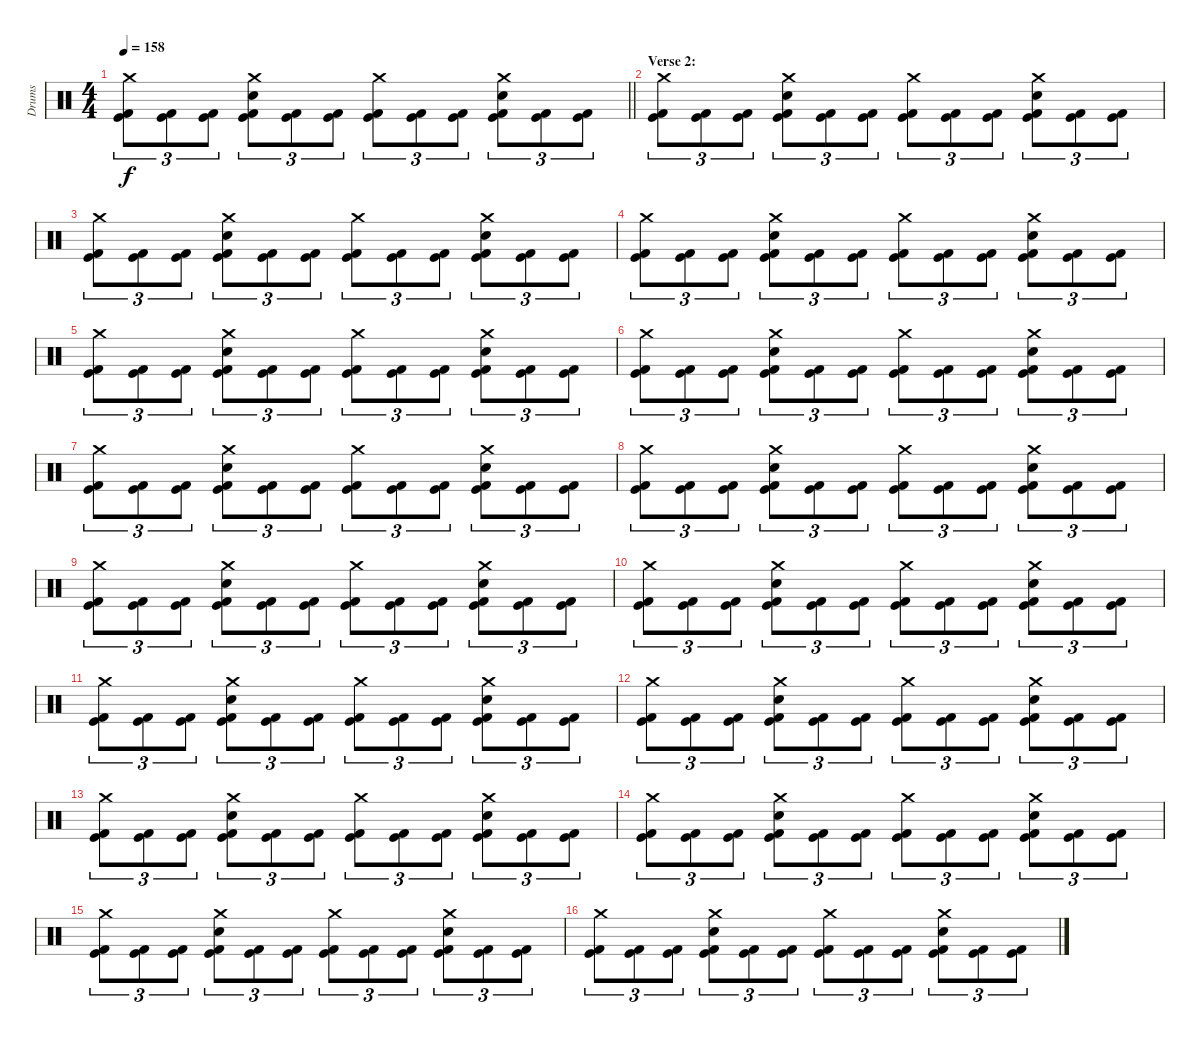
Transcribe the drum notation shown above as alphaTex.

\track ("Drums" "Drums") {instrument percussion}
\staff {score}
\articulation defaults
\ts (4 4)
\tempo 158
\clef neutral
\barLineRight lightlight
\ks c
("Crash medium (hit)" "Kick (hit)" "Kick (hit) 2").8{tu (3 2) dy f} ("Kick (hit)" "Kick (hit) 2").8{tu (3 2)} ("Kick (hit)" "Kick (hit) 2").8{tu (3 2)} ("Crash medium (hit)" "Snare (hit) 2" "Kick (hit)" "Kick (hit) 2").8{tu (3 2)} ("Kick (hit)" "Kick (hit) 2").8{tu (3 2)} ("Kick (hit)" "Kick (hit) 2").8{tu (3 2)} ("Crash medium (hit)" "Kick (hit)" "Kick (hit) 2").8{tu (3 2)} ("Kick (hit)" "Kick (hit) 2").8{tu (3 2)} ("Kick (hit)" "Kick (hit) 2").8{tu (3 2)} ("Crash medium (hit)" "Snare (hit) 2" "Kick (hit)" "Kick (hit) 2").8{tu (3 2)} ("Kick (hit)" "Kick (hit) 2").8{tu (3 2)} ("Kick (hit)" "Kick (hit) 2").8{tu (3 2)} |
\section ("" "Verse 2:")
("Crash medium (hit)" "Kick (hit)" "Kick (hit) 2").8{tu (3 2)} ("Kick (hit)" "Kick (hit) 2").8{tu (3 2)} ("Kick (hit)" "Kick (hit) 2").8{tu (3 2)} ("Crash medium (hit)" "Snare (hit) 2" "Kick (hit)" "Kick (hit) 2").8{tu (3 2)} ("Kick (hit)" "Kick (hit) 2").8{tu (3 2)} ("Kick (hit)" "Kick (hit) 2").8{tu (3 2)} ("Crash medium (hit)" "Kick (hit)" "Kick (hit) 2").8{tu (3 2)} ("Kick (hit)" "Kick (hit) 2").8{tu (3 2)} ("Kick (hit)" "Kick (hit) 2").8{tu (3 2)} ("Crash medium (hit)" "Snare (hit) 2" "Kick (hit)" "Kick (hit) 2").8{tu (3 2)} ("Kick (hit)" "Kick (hit) 2").8{tu (3 2)} ("Kick (hit)" "Kick (hit) 2").8{tu (3 2)} |
("Crash medium (hit)" "Kick (hit)" "Kick (hit) 2").8{tu (3 2)} ("Kick (hit)" "Kick (hit) 2").8{tu (3 2)} ("Kick (hit)" "Kick (hit) 2").8{tu (3 2)} ("Crash medium (hit)" "Snare (hit) 2" "Kick (hit)" "Kick (hit) 2").8{tu (3 2)} ("Kick (hit)" "Kick (hit) 2").8{tu (3 2)} ("Kick (hit)" "Kick (hit) 2").8{tu (3 2)} ("Crash medium (hit)" "Kick (hit)" "Kick (hit) 2").8{tu (3 2)} ("Kick (hit)" "Kick (hit) 2").8{tu (3 2)} ("Kick (hit)" "Kick (hit) 2").8{tu (3 2)} ("Crash medium (hit)" "Snare (hit) 2" "Kick (hit)" "Kick (hit) 2").8{tu (3 2)} ("Kick (hit)" "Kick (hit) 2").8{tu (3 2)} ("Kick (hit)" "Kick (hit) 2").8{tu (3 2)} |
("Crash medium (hit)" "Kick (hit)" "Kick (hit) 2").8{tu (3 2)} ("Kick (hit)" "Kick (hit) 2").8{tu (3 2)} ("Kick (hit)" "Kick (hit) 2").8{tu (3 2)} ("Crash medium (hit)" "Snare (hit) 2" "Kick (hit)" "Kick (hit) 2").8{tu (3 2)} ("Kick (hit)" "Kick (hit) 2").8{tu (3 2)} ("Kick (hit)" "Kick (hit) 2").8{tu (3 2)} ("Crash medium (hit)" "Kick (hit)" "Kick (hit) 2").8{tu (3 2)} ("Kick (hit)" "Kick (hit) 2").8{tu (3 2)} ("Kick (hit)" "Kick (hit) 2").8{tu (3 2)} ("Crash medium (hit)" "Snare (hit) 2" "Kick (hit)" "Kick (hit) 2").8{tu (3 2)} ("Kick (hit)" "Kick (hit) 2").8{tu (3 2)} ("Kick (hit)" "Kick (hit) 2").8{tu (3 2)} |
("Crash medium (hit)" "Kick (hit)" "Kick (hit) 2").8{tu (3 2)} ("Kick (hit)" "Kick (hit) 2").8{tu (3 2)} ("Kick (hit)" "Kick (hit) 2").8{tu (3 2)} ("Crash medium (hit)" "Snare (hit) 2" "Kick (hit)" "Kick (hit) 2").8{tu (3 2)} ("Kick (hit)" "Kick (hit) 2").8{tu (3 2)} ("Kick (hit)" "Kick (hit) 2").8{tu (3 2)} ("Crash medium (hit)" "Kick (hit)" "Kick (hit) 2").8{tu (3 2)} ("Kick (hit)" "Kick (hit) 2").8{tu (3 2)} ("Kick (hit)" "Kick (hit) 2").8{tu (3 2)} ("Crash medium (hit)" "Snare (hit) 2" "Kick (hit)" "Kick (hit) 2").8{tu (3 2)} ("Kick (hit)" "Kick (hit) 2").8{tu (3 2)} ("Kick (hit)" "Kick (hit) 2").8{tu (3 2)} |
("Crash medium (hit)" "Kick (hit)" "Kick (hit) 2").8{tu (3 2)} ("Kick (hit)" "Kick (hit) 2").8{tu (3 2)} ("Kick (hit)" "Kick (hit) 2").8{tu (3 2)} ("Crash medium (hit)" "Snare (hit) 2" "Kick (hit)" "Kick (hit) 2").8{tu (3 2)} ("Kick (hit)" "Kick (hit) 2").8{tu (3 2)} ("Kick (hit)" "Kick (hit) 2").8{tu (3 2)} ("Crash medium (hit)" "Kick (hit)" "Kick (hit) 2").8{tu (3 2)} ("Kick (hit)" "Kick (hit) 2").8{tu (3 2)} ("Kick (hit)" "Kick (hit) 2").8{tu (3 2)} ("Crash medium (hit)" "Snare (hit) 2" "Kick (hit)" "Kick (hit) 2").8{tu (3 2)} ("Kick (hit)" "Kick (hit) 2").8{tu (3 2)} ("Kick (hit)" "Kick (hit) 2").8{tu (3 2)} |
("Crash medium (hit)" "Kick (hit)" "Kick (hit) 2").8{tu (3 2)} ("Kick (hit)" "Kick (hit) 2").8{tu (3 2)} ("Kick (hit)" "Kick (hit) 2").8{tu (3 2)} ("Crash medium (hit)" "Snare (hit) 2" "Kick (hit)" "Kick (hit) 2").8{tu (3 2)} ("Kick (hit)" "Kick (hit) 2").8{tu (3 2)} ("Kick (hit)" "Kick (hit) 2").8{tu (3 2)} ("Crash medium (hit)" "Kick (hit)" "Kick (hit) 2").8{tu (3 2)} ("Kick (hit)" "Kick (hit) 2").8{tu (3 2)} ("Kick (hit)" "Kick (hit) 2").8{tu (3 2)} ("Crash medium (hit)" "Snare (hit) 2" "Kick (hit)" "Kick (hit) 2").8{tu (3 2)} ("Kick (hit)" "Kick (hit) 2").8{tu (3 2)} ("Kick (hit)" "Kick (hit) 2").8{tu (3 2)} |
("Crash medium (hit)" "Kick (hit)" "Kick (hit) 2").8{tu (3 2)} ("Kick (hit)" "Kick (hit) 2").8{tu (3 2)} ("Kick (hit)" "Kick (hit) 2").8{tu (3 2)} ("Crash medium (hit)" "Snare (hit) 2" "Kick (hit)" "Kick (hit) 2").8{tu (3 2)} ("Kick (hit)" "Kick (hit) 2").8{tu (3 2)} ("Kick (hit)" "Kick (hit) 2").8{tu (3 2)} ("Crash medium (hit)" "Kick (hit)" "Kick (hit) 2").8{tu (3 2)} ("Kick (hit)" "Kick (hit) 2").8{tu (3 2)} ("Kick (hit)" "Kick (hit) 2").8{tu (3 2)} ("Crash medium (hit)" "Snare (hit) 2" "Kick (hit)" "Kick (hit) 2").8{tu (3 2)} ("Kick (hit)" "Kick (hit) 2").8{tu (3 2)} ("Kick (hit)" "Kick (hit) 2").8{tu (3 2)} |
("Crash medium (hit)" "Kick (hit)" "Kick (hit) 2").8{tu (3 2)} ("Kick (hit)" "Kick (hit) 2").8{tu (3 2)} ("Kick (hit)" "Kick (hit) 2").8{tu (3 2)} ("Crash medium (hit)" "Snare (hit) 2" "Kick (hit)" "Kick (hit) 2").8{tu (3 2)} ("Kick (hit)" "Kick (hit) 2").8{tu (3 2)} ("Kick (hit)" "Kick (hit) 2").8{tu (3 2)} ("Crash medium (hit)" "Kick (hit)" "Kick (hit) 2").8{tu (3 2)} ("Kick (hit)" "Kick (hit) 2").8{tu (3 2)} ("Kick (hit)" "Kick (hit) 2").8{tu (3 2)} ("Crash medium (hit)" "Snare (hit) 2" "Kick (hit)" "Kick (hit) 2").8{tu (3 2)} ("Kick (hit)" "Kick (hit) 2").8{tu (3 2)} ("Kick (hit)" "Kick (hit) 2").8{tu (3 2)} |
("Crash medium (hit)" "Kick (hit)" "Kick (hit) 2").8{tu (3 2)} ("Kick (hit)" "Kick (hit) 2").8{tu (3 2)} ("Kick (hit)" "Kick (hit) 2").8{tu (3 2)} ("Crash medium (hit)" "Snare (hit) 2" "Kick (hit)" "Kick (hit) 2").8{tu (3 2)} ("Kick (hit)" "Kick (hit) 2").8{tu (3 2)} ("Kick (hit)" "Kick (hit) 2").8{tu (3 2)} ("Crash medium (hit)" "Kick (hit)" "Kick (hit) 2").8{tu (3 2)} ("Kick (hit)" "Kick (hit) 2").8{tu (3 2)} ("Kick (hit)" "Kick (hit) 2").8{tu (3 2)} ("Crash medium (hit)" "Snare (hit) 2" "Kick (hit)" "Kick (hit) 2").8{tu (3 2)} ("Kick (hit)" "Kick (hit) 2").8{tu (3 2)} ("Kick (hit)" "Kick (hit) 2").8{tu (3 2)} |
("Crash medium (hit)" "Kick (hit)" "Kick (hit) 2").8{tu (3 2)} ("Kick (hit)" "Kick (hit) 2").8{tu (3 2)} ("Kick (hit)" "Kick (hit) 2").8{tu (3 2)} ("Crash medium (hit)" "Snare (hit) 2" "Kick (hit)" "Kick (hit) 2").8{tu (3 2)} ("Kick (hit)" "Kick (hit) 2").8{tu (3 2)} ("Kick (hit)" "Kick (hit) 2").8{tu (3 2)} ("Crash medium (hit)" "Kick (hit)" "Kick (hit) 2").8{tu (3 2)} ("Kick (hit)" "Kick (hit) 2").8{tu (3 2)} ("Kick (hit)" "Kick (hit) 2").8{tu (3 2)} ("Crash medium (hit)" "Snare (hit) 2" "Kick (hit)" "Kick (hit) 2").8{tu (3 2)} ("Kick (hit)" "Kick (hit) 2").8{tu (3 2)} ("Kick (hit)" "Kick (hit) 2").8{tu (3 2)} |
("Crash medium (hit)" "Kick (hit)" "Kick (hit) 2").8{tu (3 2)} ("Kick (hit)" "Kick (hit) 2").8{tu (3 2)} ("Kick (hit)" "Kick (hit) 2").8{tu (3 2)} ("Crash medium (hit)" "Snare (hit) 2" "Kick (hit)" "Kick (hit) 2").8{tu (3 2)} ("Kick (hit)" "Kick (hit) 2").8{tu (3 2)} ("Kick (hit)" "Kick (hit) 2").8{tu (3 2)} ("Crash medium (hit)" "Kick (hit)" "Kick (hit) 2").8{tu (3 2)} ("Kick (hit)" "Kick (hit) 2").8{tu (3 2)} ("Kick (hit)" "Kick (hit) 2").8{tu (3 2)} ("Crash medium (hit)" "Snare (hit) 2" "Kick (hit)" "Kick (hit) 2").8{tu (3 2)} ("Kick (hit)" "Kick (hit) 2").8{tu (3 2)} ("Kick (hit)" "Kick (hit) 2").8{tu (3 2)} |
("Crash medium (hit)" "Kick (hit)" "Kick (hit) 2").8{tu (3 2)} ("Kick (hit)" "Kick (hit) 2").8{tu (3 2)} ("Kick (hit)" "Kick (hit) 2").8{tu (3 2)} ("Crash medium (hit)" "Snare (hit) 2" "Kick (hit)" "Kick (hit) 2").8{tu (3 2)} ("Kick (hit)" "Kick (hit) 2").8{tu (3 2)} ("Kick (hit)" "Kick (hit) 2").8{tu (3 2)} ("Crash medium (hit)" "Kick (hit)" "Kick (hit) 2").8{tu (3 2)} ("Kick (hit)" "Kick (hit) 2").8{tu (3 2)} ("Kick (hit)" "Kick (hit) 2").8{tu (3 2)} ("Crash medium (hit)" "Snare (hit) 2" "Kick (hit)" "Kick (hit) 2").8{tu (3 2)} ("Kick (hit)" "Kick (hit) 2").8{tu (3 2)} ("Kick (hit)" "Kick (hit) 2").8{tu (3 2)} |
("Crash medium (hit)" "Kick (hit)" "Kick (hit) 2").8{tu (3 2)} ("Kick (hit)" "Kick (hit) 2").8{tu (3 2)} ("Kick (hit)" "Kick (hit) 2").8{tu (3 2)} ("Crash medium (hit)" "Snare (hit) 2" "Kick (hit)" "Kick (hit) 2").8{tu (3 2)} ("Kick (hit)" "Kick (hit) 2").8{tu (3 2)} ("Kick (hit)" "Kick (hit) 2").8{tu (3 2)} ("Crash medium (hit)" "Kick (hit)" "Kick (hit) 2").8{tu (3 2)} ("Kick (hit)" "Kick (hit) 2").8{tu (3 2)} ("Kick (hit)" "Kick (hit) 2").8{tu (3 2)} ("Crash medium (hit)" "Snare (hit) 2" "Kick (hit)" "Kick (hit) 2").8{tu (3 2)} ("Kick (hit)" "Kick (hit) 2").8{tu (3 2)} ("Kick (hit)" "Kick (hit) 2").8{tu (3 2)} |
("Crash medium (hit)" "Kick (hit)" "Kick (hit) 2").8{tu (3 2)} ("Kick (hit)" "Kick (hit) 2").8{tu (3 2)} ("Kick (hit)" "Kick (hit) 2").8{tu (3 2)} ("Crash medium (hit)" "Snare (hit) 2" "Kick (hit)" "Kick (hit) 2").8{tu (3 2)} ("Kick (hit)" "Kick (hit) 2").8{tu (3 2)} ("Kick (hit)" "Kick (hit) 2").8{tu (3 2)} ("Crash medium (hit)" "Kick (hit)" "Kick (hit) 2").8{tu (3 2)} ("Kick (hit)" "Kick (hit) 2").8{tu (3 2)} ("Kick (hit)" "Kick (hit) 2").8{tu (3 2)} ("Crash medium (hit)" "Snare (hit) 2" "Kick (hit)" "Kick (hit) 2").8{tu (3 2)} ("Kick (hit)" "Kick (hit) 2").8{tu (3 2)} ("Kick (hit)" "Kick (hit) 2").8{tu (3 2)} |
("Crash medium (hit)" "Kick (hit)" "Kick (hit) 2").8{tu (3 2)} ("Kick (hit)" "Kick (hit) 2").8{tu (3 2)} ("Kick (hit)" "Kick (hit) 2").8{tu (3 2)} ("Crash medium (hit)" "Snare (hit) 2" "Kick (hit)" "Kick (hit) 2").8{tu (3 2)} ("Kick (hit)" "Kick (hit) 2").8{tu (3 2)} ("Kick (hit)" "Kick (hit) 2").8{tu (3 2)} ("Crash medium (hit)" "Kick (hit)" "Kick (hit) 2").8{tu (3 2)} ("Kick (hit)" "Kick (hit) 2").8{tu (3 2)} ("Kick (hit)" "Kick (hit) 2").8{tu (3 2)} ("Crash medium (hit)" "Snare (hit) 2" "Kick (hit)" "Kick (hit) 2").8{tu (3 2)} ("Kick (hit)" "Kick (hit) 2").8{tu (3 2)} ("Kick (hit)" "Kick (hit) 2").8{tu (3 2)}
